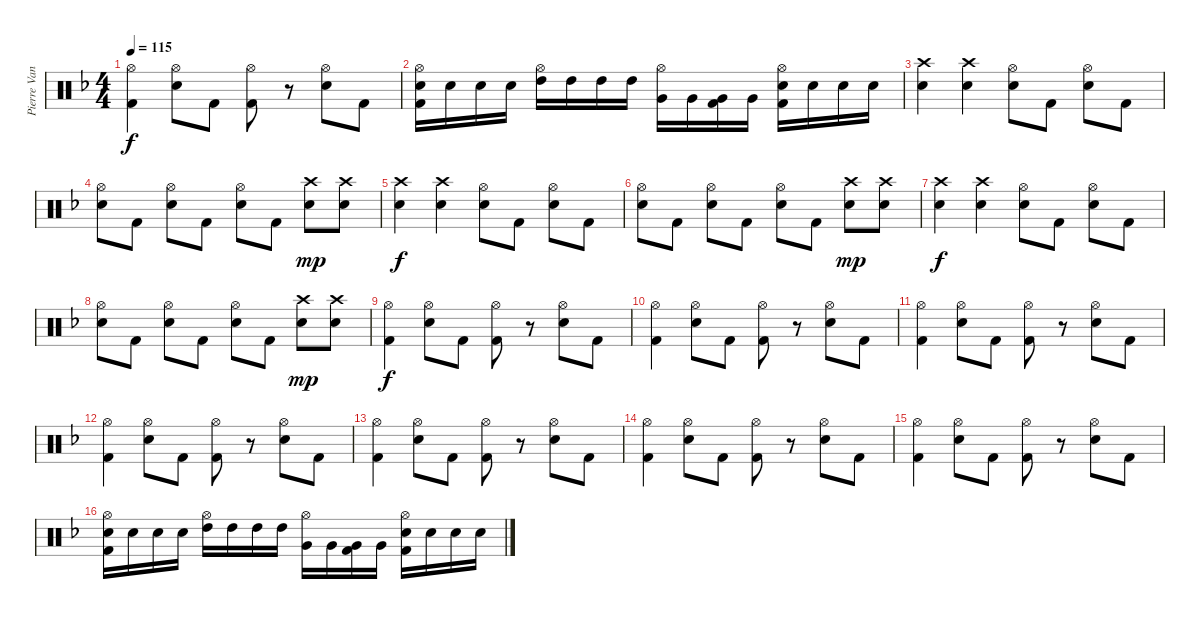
\track ("Pierre Van Der Linden" "Pierre Van") {instrument percussion}
\staff {score}
\articulation defaults
\ts (4 4)
\tempo 115
\clef neutral
\ks f
("Hi-Hat (open)" "Kick (hit) 2").4{dy f} ("Hi-Hat (open)" "Electric Snare (hit)").8 "Kick (hit) 2".8 ("Hi-Hat (open)" "Kick (hit) 2").8 r.8 ("Hi-Hat (open)" "Electric Snare (hit)").8 "Kick (hit) 2".8 |
("Hi-Hat (open)" "Electric Snare (hit)" "Kick (hit) 2").16 "Electric Snare (hit)".16 "Electric Snare (hit)".16 "Electric Snare (hit)".16 ("Hi-Hat (open)" "High Tom (hit)").16 "High Tom (hit)".16 "High Tom (hit)".16 "High Tom (hit)".16 ("Hi-Hat (open)" "Very Low Tom (hit)").16 "Very Low Tom (hit)".16 ("Very Low Tom (hit)" "Kick (hit) 2").16 "Very Low Tom (hit)".16 ("Hi-Hat (open)" "Electric Snare (hit)" "Kick (hit) 2").16 "Electric Snare (hit)".16 "Electric Snare (hit)".16 "Electric Snare (hit)".16 |
("Crash high (hit)" "Electric Snare (hit)").4 ("Crash high (hit)" "Electric Snare (hit)").4 ("Hi-Hat (open)" "Electric Snare (hit)").8 "Kick (hit) 2".8 ("Hi-Hat (open)" "Electric Snare (hit)").8 "Kick (hit) 2".8 |
("Hi-Hat (open)" "Electric Snare (hit)").8 "Kick (hit) 2".8 ("Hi-Hat (open)" "Electric Snare (hit)").8 "Kick (hit) 2".8 ("Hi-Hat (open)" "Electric Snare (hit)").8 "Kick (hit) 2".8 ("Crash high (hit)" "Electric Snare (hit)").8{dy mp} ("Crash high (hit)" "Electric Snare (hit)").8 |
("Crash high (hit)" "Electric Snare (hit)").4{dy f} ("Crash high (hit)" "Electric Snare (hit)").4 ("Hi-Hat (open)" "Electric Snare (hit)").8 "Kick (hit) 2".8 ("Hi-Hat (open)" "Electric Snare (hit)").8 "Kick (hit) 2".8 |
("Hi-Hat (open)" "Electric Snare (hit)").8 "Kick (hit) 2".8 ("Hi-Hat (open)" "Electric Snare (hit)").8 "Kick (hit) 2".8 ("Hi-Hat (open)" "Electric Snare (hit)").8 "Kick (hit) 2".8 ("Crash high (hit)" "Electric Snare (hit)").8{dy mp} ("Crash high (hit)" "Electric Snare (hit)").8 |
("Crash high (hit)" "Electric Snare (hit)").4{dy f} ("Crash high (hit)" "Electric Snare (hit)").4 ("Hi-Hat (open)" "Electric Snare (hit)").8 "Kick (hit) 2".8 ("Hi-Hat (open)" "Electric Snare (hit)").8 "Kick (hit) 2".8 |
("Hi-Hat (open)" "Electric Snare (hit)").8 "Kick (hit) 2".8 ("Hi-Hat (open)" "Electric Snare (hit)").8 "Kick (hit) 2".8 ("Hi-Hat (open)" "Electric Snare (hit)").8 "Kick (hit) 2".8 ("Crash high (hit)" "Electric Snare (hit)").8{dy mp} ("Crash high (hit)" "Electric Snare (hit)").8 |
("Hi-Hat (open)" "Kick (hit) 2").4{dy f} ("Hi-Hat (open)" "Electric Snare (hit)").8 "Kick (hit) 2".8 ("Hi-Hat (open)" "Kick (hit) 2").8 r.8 ("Hi-Hat (open)" "Electric Snare (hit)").8 "Kick (hit) 2".8 |
("Hi-Hat (open)" "Kick (hit) 2").4 ("Hi-Hat (open)" "Electric Snare (hit)").8 "Kick (hit) 2".8 ("Hi-Hat (open)" "Kick (hit) 2").8 r.8 ("Hi-Hat (open)" "Electric Snare (hit)").8 "Kick (hit) 2".8 |
("Hi-Hat (open)" "Kick (hit) 2").4 ("Hi-Hat (open)" "Electric Snare (hit)").8 "Kick (hit) 2".8 ("Hi-Hat (open)" "Kick (hit) 2").8 r.8 ("Hi-Hat (open)" "Electric Snare (hit)").8 "Kick (hit) 2".8 |
("Hi-Hat (open)" "Kick (hit) 2").4 ("Hi-Hat (open)" "Electric Snare (hit)").8 "Kick (hit) 2".8 ("Hi-Hat (open)" "Kick (hit) 2").8 r.8 ("Hi-Hat (open)" "Electric Snare (hit)").8 "Kick (hit) 2".8 |
("Hi-Hat (open)" "Kick (hit) 2").4 ("Hi-Hat (open)" "Electric Snare (hit)").8 "Kick (hit) 2".8 ("Hi-Hat (open)" "Kick (hit) 2").8 r.8 ("Hi-Hat (open)" "Electric Snare (hit)").8 "Kick (hit) 2".8 |
("Hi-Hat (open)" "Kick (hit) 2").4 ("Hi-Hat (open)" "Electric Snare (hit)").8 "Kick (hit) 2".8 ("Hi-Hat (open)" "Kick (hit) 2").8 r.8 ("Hi-Hat (open)" "Electric Snare (hit)").8 "Kick (hit) 2".8 |
("Hi-Hat (open)" "Kick (hit) 2").4 ("Hi-Hat (open)" "Electric Snare (hit)").8 "Kick (hit) 2".8 ("Hi-Hat (open)" "Kick (hit) 2").8 r.8 ("Hi-Hat (open)" "Electric Snare (hit)").8 "Kick (hit) 2".8 |
("Hi-Hat (open)" "Electric Snare (hit)" "Kick (hit) 2").16 "Electric Snare (hit)".16 "Electric Snare (hit)".16 "Electric Snare (hit)".16 ("Hi-Hat (open)" "High Tom (hit)").16 "High Tom (hit)".16 "High Tom (hit)".16 "High Tom (hit)".16 ("Hi-Hat (open)" "Very Low Tom (hit)").16 "Very Low Tom (hit)".16 ("Very Low Tom (hit)" "Kick (hit) 2").16 "Very Low Tom (hit)".16 ("Hi-Hat (open)" "Electric Snare (hit)" "Kick (hit) 2").16 "Electric Snare (hit)".16 "Electric Snare (hit)".16 "Electric Snare (hit)".16
